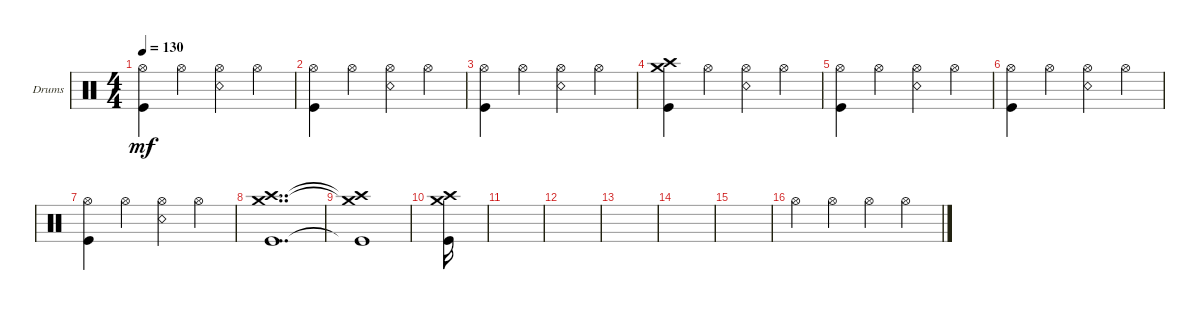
\defaultSystemsLayout 4
\bracketExtendMode groupsimilarinstruments
\firstSystemTrackNameOrientation horizontal
\otherSystemsTrackNameOrientation horizontal
\track ("Drumkit" "Drums") {instrument percussion}
\staff {score}
\articulation defaults
\ts (4 4)
\tempo 130
\clef neutral
\ks c
("Hi-Hat (open)" "Kick (hit)").4{dy mf} "Hi-Hat (open)".4 ("Hi-Hat (open)" "Snare (rim shot)").4 "Hi-Hat (open)".4 |
("Hi-Hat (open)" "Kick (hit)").4 "Hi-Hat (open)".4 ("Snare (rim shot)" "Hi-Hat (open)").4 "Hi-Hat (open)".4 |
("Hi-Hat (open)" "Kick (hit)").4 "Hi-Hat (open)".4 ("Hi-Hat (open)" "Snare (rim shot)").4 "Hi-Hat (open)".4 |
("Crash medium (hit)" "Crash high (hit)" "Kick (hit)").4 "Hi-Hat (open)".4 ("Hi-Hat (open)" "Snare (rim shot)").4 "Hi-Hat (open)".4 |
("Hi-Hat (open)" "Kick (hit)").4 "Hi-Hat (open)".4 ("Hi-Hat (open)" "Snare (rim shot)").4 "Hi-Hat (open)".4 |
("Hi-Hat (open)" "Kick (hit)").4 "Hi-Hat (open)".4 ("Hi-Hat (open)" "Snare (rim shot)").4 "Hi-Hat (open)".4 |
("Hi-Hat (open)" "Kick (hit)").4 "Hi-Hat (open)".4 ("Hi-Hat (open)" "Snare (rim shot)").4 "Hi-Hat (open)".4 |
("Crash medium (hit)" "Crash high (hit)" "Kick (hit)").1{dd} |
("Crash medium (hit)"{t} "Crash high (hit)"{t} "Kick (hit)"{t}).1 |
("Crash medium (hit)" "Crash high (hit)" "Kick (hit)").16 |
|
|
|
|
|
"Hi-Hat (open)".4 "Hi-Hat (open)".4 "Hi-Hat (open)".4 "Hi-Hat (open)".4
